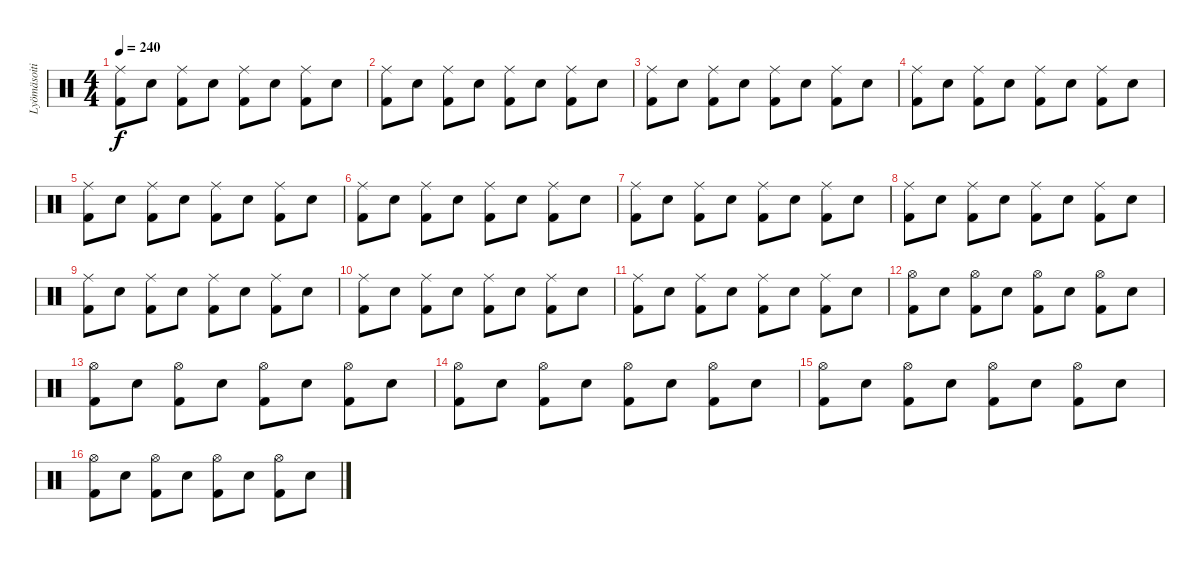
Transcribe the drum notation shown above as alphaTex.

\track ("Lyömäsoitin" "Lyömäsoiti") {instrument percussion}
\staff {score}
\articulation defaults
\ts (4 4)
\tempo 240
\clef neutral
\ks c
("Ride (middle)" "Kick (hit) 2").8{dy f} "Snare (hit) 2".8 ("Ride (middle)" "Kick (hit) 2").8 "Snare (hit) 2".8 ("Ride (middle)" "Kick (hit) 2").8 "Snare (hit) 2".8 ("Ride (middle)" "Kick (hit) 2").8 "Snare (hit) 2".8 |
("Ride (middle)" "Kick (hit) 2").8 "Snare (hit) 2".8 ("Ride (middle)" "Kick (hit) 2").8 "Snare (hit) 2".8 ("Ride (middle)" "Kick (hit) 2").8 "Snare (hit) 2".8 ("Ride (middle)" "Kick (hit) 2").8 "Snare (hit) 2".8 |
("Ride (middle)" "Kick (hit) 2").8 "Snare (hit) 2".8 ("Ride (middle)" "Kick (hit) 2").8 "Snare (hit) 2".8 ("Ride (middle)" "Kick (hit) 2").8 "Snare (hit) 2".8 ("Ride (middle)" "Kick (hit) 2").8 "Snare (hit) 2".8 |
("Ride (middle)" "Kick (hit) 2").8 "Snare (hit) 2".8 ("Ride (middle)" "Kick (hit) 2").8 "Snare (hit) 2".8 ("Ride (middle)" "Kick (hit) 2").8 "Snare (hit) 2".8 ("Ride (middle)" "Kick (hit) 2").8 "Snare (hit) 2".8 |
("Ride (middle)" "Kick (hit) 2").8 "Snare (hit) 2".8 ("Ride (middle)" "Kick (hit) 2").8 "Snare (hit) 2".8 ("Ride (middle)" "Kick (hit) 2").8 "Snare (hit) 2".8 ("Ride (middle)" "Kick (hit) 2").8 "Snare (hit) 2".8 |
("Ride (middle)" "Kick (hit) 2").8 "Snare (hit) 2".8 ("Ride (middle)" "Kick (hit) 2").8 "Snare (hit) 2".8 ("Ride (middle)" "Kick (hit) 2").8 "Snare (hit) 2".8 ("Ride (middle)" "Kick (hit) 2").8 "Snare (hit) 2".8 |
("Ride (middle)" "Kick (hit) 2").8 "Snare (hit) 2".8 ("Ride (middle)" "Kick (hit) 2").8 "Snare (hit) 2".8 ("Ride (middle)" "Kick (hit) 2").8 "Snare (hit) 2".8 ("Ride (middle)" "Kick (hit) 2").8 "Snare (hit) 2".8 |
("Ride (middle)" "Kick (hit) 2").8 "Snare (hit) 2".8 ("Ride (middle)" "Kick (hit) 2").8 "Snare (hit) 2".8 ("Ride (middle)" "Kick (hit) 2").8 "Snare (hit) 2".8 ("Ride (middle)" "Kick (hit) 2").8 "Snare (hit) 2".8 |
("Ride (middle)" "Kick (hit) 2").8 "Snare (hit) 2".8 ("Ride (middle)" "Kick (hit) 2").8 "Snare (hit) 2".8 ("Ride (middle)" "Kick (hit) 2").8 "Snare (hit) 2".8 ("Ride (middle)" "Kick (hit) 2").8 "Snare (hit) 2".8 |
("Ride (middle)" "Kick (hit) 2").8 "Snare (hit) 2".8 ("Ride (middle)" "Kick (hit) 2").8 "Snare (hit) 2".8 ("Ride (middle)" "Kick (hit) 2").8 "Snare (hit) 2".8 ("Ride (middle)" "Kick (hit) 2").8 "Snare (hit) 2".8 |
("Ride (middle)" "Kick (hit) 2").8 "Snare (hit) 2".8 ("Ride (middle)" "Kick (hit) 2").8 "Snare (hit) 2".8 ("Ride (middle)" "Kick (hit) 2").8 "Snare (hit) 2".8 ("Ride (middle)" "Kick (hit) 2").8 "Snare (hit) 2".8 |
("Hi-Hat (open)" "Kick (hit) 2").8 "Snare (hit) 2".8 ("Hi-Hat (open)" "Kick (hit) 2").8 "Snare (hit) 2".8 ("Hi-Hat (open)" "Kick (hit) 2").8 "Snare (hit) 2".8 ("Hi-Hat (open)" "Kick (hit) 2").8 "Snare (hit) 2".8 |
("Hi-Hat (open)" "Kick (hit) 2").8 "Snare (hit) 2".8 ("Hi-Hat (open)" "Kick (hit) 2").8 "Snare (hit) 2".8 ("Hi-Hat (open)" "Kick (hit) 2").8 "Snare (hit) 2".8 ("Hi-Hat (open)" "Kick (hit) 2").8 "Snare (hit) 2".8 |
("Hi-Hat (open)" "Kick (hit) 2").8 "Snare (hit) 2".8 ("Hi-Hat (open)" "Kick (hit) 2").8 "Snare (hit) 2".8 ("Hi-Hat (open)" "Kick (hit) 2").8 "Snare (hit) 2".8 ("Hi-Hat (open)" "Kick (hit) 2").8 "Snare (hit) 2".8 |
("Hi-Hat (open)" "Kick (hit) 2").8 "Snare (hit) 2".8 ("Hi-Hat (open)" "Kick (hit) 2").8 "Snare (hit) 2".8 ("Hi-Hat (open)" "Kick (hit) 2").8 "Snare (hit) 2".8 ("Hi-Hat (open)" "Kick (hit) 2").8 "Snare (hit) 2".8 |
("Hi-Hat (open)" "Kick (hit) 2").8 "Snare (hit) 2".8 ("Hi-Hat (open)" "Kick (hit) 2").8 "Snare (hit) 2".8 ("Hi-Hat (open)" "Kick (hit) 2").8 "Snare (hit) 2".8 ("Hi-Hat (open)" "Kick (hit) 2").8 "Snare (hit) 2".8
